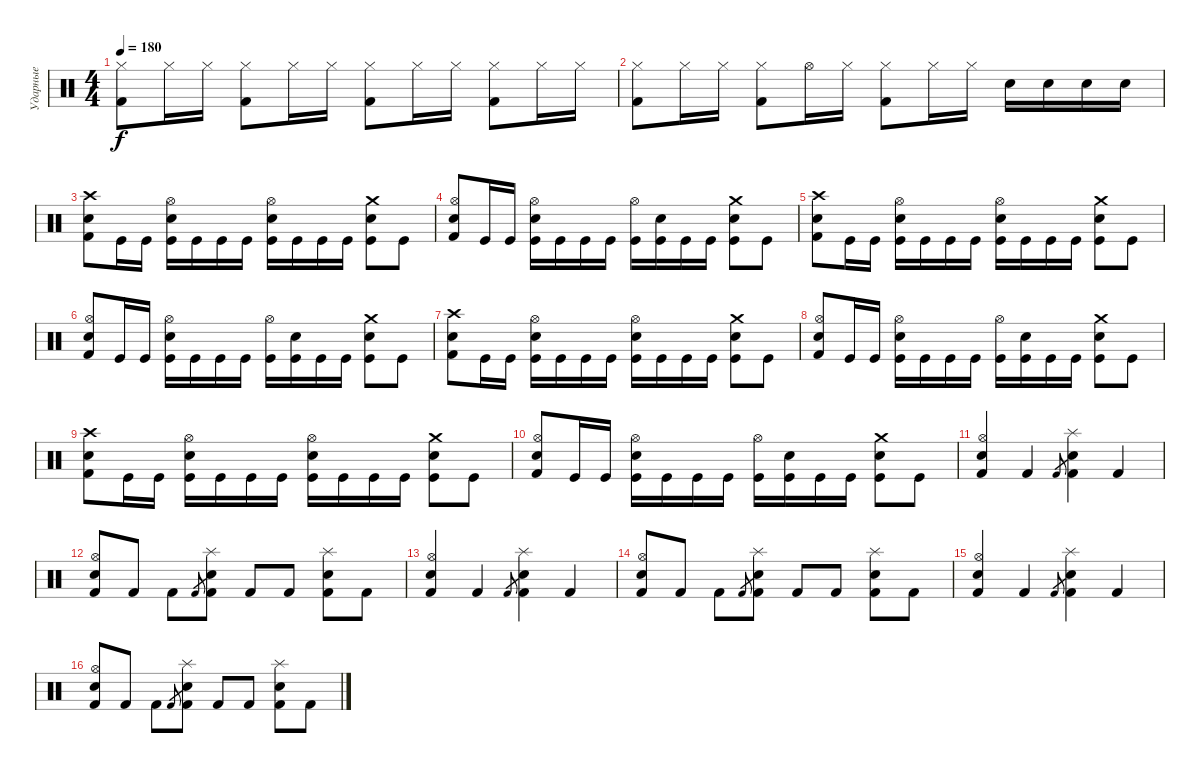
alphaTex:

\track ("Ударные" "Ударные") {instrument percussion}
\staff {score}
\articulation defaults
\ts (4 4)
\tempo 180
\clef neutral
\ks c
("Hi-Hat (closed)" "Kick (hit) 2").8{dy f} "Hi-Hat (closed)".16 "Hi-Hat (closed)".16 ("Hi-Hat (closed)" "Kick (hit) 2").8 "Hi-Hat (closed)".16 "Hi-Hat (closed)".16 ("Hi-Hat (closed)" "Kick (hit) 2").8 "Hi-Hat (closed)".16 "Hi-Hat (closed)".16 ("Hi-Hat (closed)" "Kick (hit) 2").8 "Hi-Hat (closed)".16 "Hi-Hat (closed)".16 |
("Hi-Hat (closed)" "Kick (hit) 2").8 "Hi-Hat (closed)".16 "Hi-Hat (closed)".16 ("Hi-Hat (closed)" "Kick (hit) 2").8 "Hi-Hat (open)".16 "Hi-Hat (closed)".16 ("Hi-Hat (closed)" "Kick (hit) 2").8 "Hi-Hat (closed)".16 "Hi-Hat (closed)".16 "Electric Snare (hit)".16 "Electric Snare (hit)".16 "Electric Snare (hit)".16 "Electric Snare (hit)".16 |
("Crash high (hit)" "Electric Snare (hit)" "Kick (hit) 2").8 "Kick (hit)".16 "Kick (hit)".16 ("Hi-Hat (open)" "Electric Snare (hit)" "Kick (hit)").16 "Kick (hit)".16 "Kick (hit)".16 "Kick (hit)".16 ("Hi-Hat (open)" "Electric Snare (hit)" "Kick (hit)").16 "Kick (hit)".16 "Kick (hit)".16 "Kick (hit)".16 ("Crash medium (hit)" "Electric Snare (hit)" "Kick (hit)").8 "Kick (hit)".8 |
("Hi-Hat (open)" "Electric Snare (hit)" "Kick (hit) 2").8 "Kick (hit)".16 "Kick (hit)".16 ("Hi-Hat (open)" "Electric Snare (hit)" "Kick (hit)").16 "Kick (hit)".16 "Kick (hit)".16 "Kick (hit)".16 ("Hi-Hat (open)" "Kick (hit)").16 ("Electric Snare (hit)" "Kick (hit)").16 "Kick (hit)".16 "Kick (hit)".16 ("Crash medium (hit)" "Electric Snare (hit)" "Kick (hit)").8 "Kick (hit)".8 |
("Crash high (hit)" "Electric Snare (hit)" "Kick (hit) 2").8 "Kick (hit)".16 "Kick (hit)".16 ("Hi-Hat (open)" "Electric Snare (hit)" "Kick (hit)").16 "Kick (hit)".16 "Kick (hit)".16 "Kick (hit)".16 ("Hi-Hat (open)" "Electric Snare (hit)" "Kick (hit)").16 "Kick (hit)".16 "Kick (hit)".16 "Kick (hit)".16 ("Crash medium (hit)" "Electric Snare (hit)" "Kick (hit)").8 "Kick (hit)".8 |
("Hi-Hat (open)" "Electric Snare (hit)" "Kick (hit) 2").8 "Kick (hit)".16 "Kick (hit)".16 ("Hi-Hat (open)" "Electric Snare (hit)" "Kick (hit)").16 "Kick (hit)".16 "Kick (hit)".16 "Kick (hit)".16 ("Hi-Hat (open)" "Kick (hit)").16 ("Electric Snare (hit)" "Kick (hit)").16 "Kick (hit)".16 "Kick (hit)".16 ("Crash medium (hit)" "Electric Snare (hit)" "Kick (hit)").8 "Kick (hit)".8 |
("Crash high (hit)" "Electric Snare (hit)" "Kick (hit) 2").8 "Kick (hit)".16 "Kick (hit)".16 ("Hi-Hat (open)" "Electric Snare (hit)" "Kick (hit)").16 "Kick (hit)".16 "Kick (hit)".16 "Kick (hit)".16 ("Hi-Hat (open)" "Electric Snare (hit)" "Kick (hit)").16 "Kick (hit)".16 "Kick (hit)".16 "Kick (hit)".16 ("Crash medium (hit)" "Electric Snare (hit)" "Kick (hit)").8 "Kick (hit)".8 |
("Hi-Hat (open)" "Electric Snare (hit)" "Kick (hit) 2").8 "Kick (hit)".16 "Kick (hit)".16 ("Hi-Hat (open)" "Electric Snare (hit)" "Kick (hit)").16 "Kick (hit)".16 "Kick (hit)".16 "Kick (hit)".16 ("Hi-Hat (open)" "Kick (hit)").16 ("Electric Snare (hit)" "Kick (hit)").16 "Kick (hit)".16 "Kick (hit)".16 ("Crash medium (hit)" "Electric Snare (hit)" "Kick (hit)").8 "Kick (hit)".8 |
("Crash high (hit)" "Electric Snare (hit)" "Kick (hit) 2").8 "Kick (hit)".16 "Kick (hit)".16 ("Hi-Hat (open)" "Electric Snare (hit)" "Kick (hit)").16 "Kick (hit)".16 "Kick (hit)".16 "Kick (hit)".16 ("Hi-Hat (open)" "Electric Snare (hit)" "Kick (hit)").16 "Kick (hit)".16 "Kick (hit)".16 "Kick (hit)".16 ("Crash medium (hit)" "Electric Snare (hit)" "Kick (hit)").8 "Kick (hit)".8 |
("Hi-Hat (open)" "Electric Snare (hit)" "Kick (hit) 2").8 "Kick (hit)".16 "Kick (hit)".16 ("Hi-Hat (open)" "Electric Snare (hit)" "Kick (hit)").16 "Kick (hit)".16 "Kick (hit)".16 "Kick (hit)".16 ("Hi-Hat (open)" "Kick (hit)").16 ("Electric Snare (hit)" "Kick (hit)").16 "Kick (hit)".16 "Kick (hit)".16 ("Crash medium (hit)" "Electric Snare (hit)" "Kick (hit)").8 "Kick (hit)".8 |
("Hi-Hat (open)" "Electric Snare (hit)" "Kick (hit) 2").4 "Kick (hit) 2".4 "Kick (hit) 2".8{gr} ("Splash (hit)" "Electric Snare (hit)" "Kick (hit) 2").4 "Kick (hit) 2".4 |
("Hi-Hat (open)" "Electric Snare (hit)" "Kick (hit) 2").8 "Kick (hit) 2".8 "Kick (hit) 2".8 "Kick (hit) 2".8{gr} ("Splash (hit)" "Electric Snare (hit)" "Kick (hit) 2").8 "Kick (hit) 2".8 "Kick (hit) 2".8 ("Splash (hit)" "Electric Snare (hit)" "Kick (hit) 2").8 "Kick (hit) 2".8 |
("Hi-Hat (open)" "Electric Snare (hit)" "Kick (hit) 2").4 "Kick (hit) 2".4 "Kick (hit) 2".8{gr} ("Splash (hit)" "Electric Snare (hit)" "Kick (hit) 2").4 "Kick (hit) 2".4 |
("Hi-Hat (open)" "Electric Snare (hit)" "Kick (hit) 2").8 "Kick (hit) 2".8 "Kick (hit) 2".8 "Kick (hit) 2".8{gr} ("Splash (hit)" "Electric Snare (hit)" "Kick (hit) 2").8 "Kick (hit) 2".8 "Kick (hit) 2".8 ("Splash (hit)" "Electric Snare (hit)" "Kick (hit) 2").8 "Kick (hit) 2".8 |
("Hi-Hat (open)" "Electric Snare (hit)" "Kick (hit) 2").4 "Kick (hit) 2".4 "Kick (hit) 2".8{gr} ("Splash (hit)" "Electric Snare (hit)" "Kick (hit) 2").4 "Kick (hit) 2".4 |
("Hi-Hat (open)" "Electric Snare (hit)" "Kick (hit) 2").8 "Kick (hit) 2".8 "Kick (hit) 2".8 "Kick (hit) 2".8{gr} ("Splash (hit)" "Electric Snare (hit)" "Kick (hit) 2").8 "Kick (hit) 2".8 "Kick (hit) 2".8 ("Splash (hit)" "Electric Snare (hit)" "Kick (hit) 2").8 "Kick (hit) 2".8
